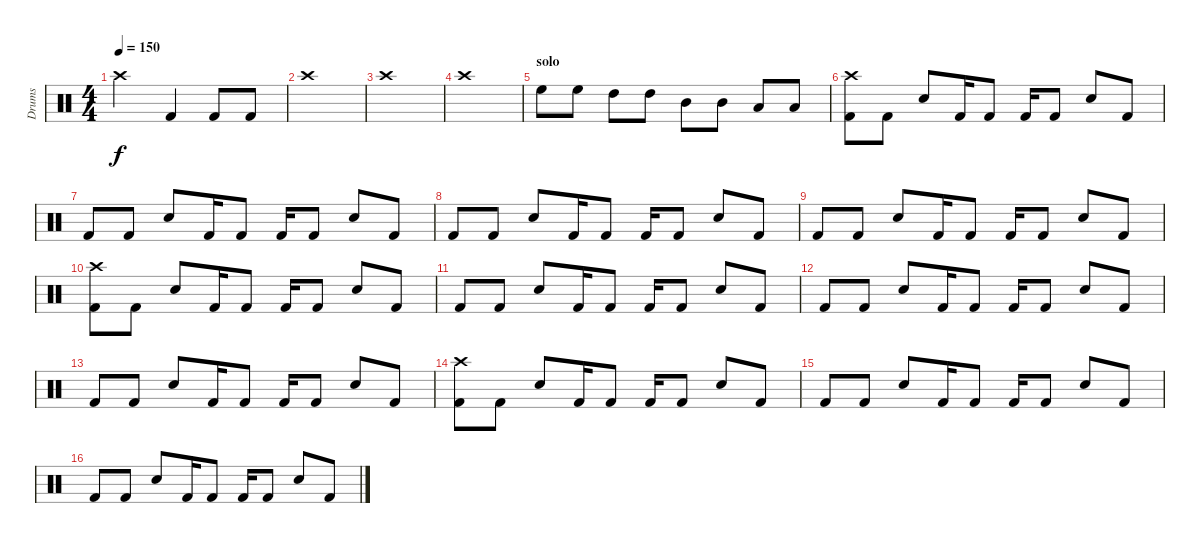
\track ("Drums" "Drums") {instrument percussion}
\staff {score}
\articulation defaults
\ts (4 4)
\tempo 150
\clef neutral
\ks c "Crash high (hit)".2{dy f} "Kick (hit) 2".4 "Kick (hit) 2".8 "Kick (hit) 2".8
|
"Crash high (hit)".1 |
"Crash high (hit)".1 |
"Crash high (hit)".1 |
\section ("" "solo")
"High Floor Tom (hit)".8 "High Floor Tom (hit)".8 "High Tom (hit)".8 "High Tom (hit)".8 "Mid Tom (hit)".8 "Mid Tom (hit)".8 "Low Tom (hit)".8 "Low Tom (hit)".8 |
("Kick (hit) 2" "Crash high (hit)").8 "Kick (hit) 2".8 "Snare (hit) 2".8 "Kick (hit) 2".16 "Kick (hit) 2".8 "Kick (hit) 2".16 "Kick (hit) 2".8 "Snare (hit) 2".8 "Kick (hit) 2".8 |
"Kick (hit) 2".8 "Kick (hit) 2".8 "Snare (hit) 2".8 "Kick (hit) 2".16 "Kick (hit) 2".8 "Kick (hit) 2".16 "Kick (hit) 2".8 "Snare (hit) 2".8 "Kick (hit) 2".8 |
"Kick (hit) 2".8 "Kick (hit) 2".8 "Snare (hit) 2".8 "Kick (hit) 2".16 "Kick (hit) 2".8 "Kick (hit) 2".16 "Kick (hit) 2".8 "Snare (hit) 2".8 "Kick (hit) 2".8 |
"Kick (hit) 2".8 "Kick (hit) 2".8 "Snare (hit) 2".8 "Kick (hit) 2".16 "Kick (hit) 2".8 "Kick (hit) 2".16 "Kick (hit) 2".8 "Snare (hit) 2".8 "Kick (hit) 2".8 |
("Kick (hit) 2" "Crash high (hit)").8 "Kick (hit) 2".8 "Snare (hit) 2".8 "Kick (hit) 2".16 "Kick (hit) 2".8 "Kick (hit) 2".16 "Kick (hit) 2".8 "Snare (hit) 2".8 "Kick (hit) 2".8 |
"Kick (hit) 2".8 "Kick (hit) 2".8 "Snare (hit) 2".8 "Kick (hit) 2".16 "Kick (hit) 2".8 "Kick (hit) 2".16 "Kick (hit) 2".8 "Snare (hit) 2".8 "Kick (hit) 2".8 |
"Kick (hit) 2".8 "Kick (hit) 2".8 "Snare (hit) 2".8 "Kick (hit) 2".16 "Kick (hit) 2".8 "Kick (hit) 2".16 "Kick (hit) 2".8 "Snare (hit) 2".8 "Kick (hit) 2".8 |
"Kick (hit) 2".8 "Kick (hit) 2".8 "Snare (hit) 2".8 "Kick (hit) 2".16 "Kick (hit) 2".8 "Kick (hit) 2".16 "Kick (hit) 2".8 "Snare (hit) 2".8 "Kick (hit) 2".8 |
("Kick (hit) 2" "Crash high (hit)").8 "Kick (hit) 2".8 "Snare (hit) 2".8 "Kick (hit) 2".16 "Kick (hit) 2".8 "Kick (hit) 2".16 "Kick (hit) 2".8 "Snare (hit) 2".8 "Kick (hit) 2".8 |
"Kick (hit) 2".8 "Kick (hit) 2".8 "Snare (hit) 2".8 "Kick (hit) 2".16 "Kick (hit) 2".8 "Kick (hit) 2".16 "Kick (hit) 2".8 "Snare (hit) 2".8 "Kick (hit) 2".8 |
"Kick (hit) 2".8 "Kick (hit) 2".8 "Snare (hit) 2".8 "Kick (hit) 2".16 "Kick (hit) 2".8 "Kick (hit) 2".16 "Kick (hit) 2".8 "Snare (hit) 2".8 "Kick (hit) 2".8
